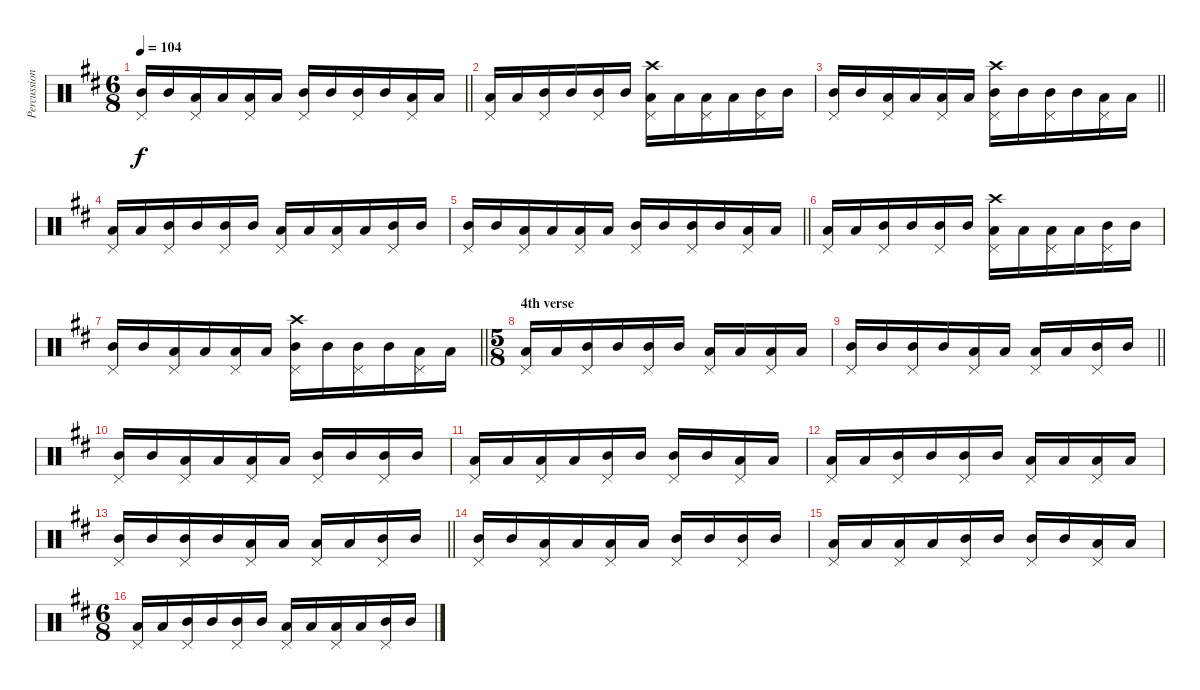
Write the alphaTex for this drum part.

\track ("Percussion" "Percussion") {instrument percussion}
\staff {score}
\articulation defaults
\ts (6 8)
\tempo 104
\clef neutral
\barLineRight lightlight
\ks d
("Pedal Hi-Hat (hit)" "Mid Tom (hit)").16{dy f} "Mid Tom (hit)".16 ("Pedal Hi-Hat (hit)" "Low Tom (hit)").16 "Low Tom (hit)".16 ("Pedal Hi-Hat (hit)" "Low Tom (hit)").16 "Low Tom (hit)".16 ("Pedal Hi-Hat (hit)" "Mid Tom (hit)").16 "Mid Tom (hit)".16 ("Pedal Hi-Hat (hit)" "Mid Tom (hit)").16 "Mid Tom (hit)".16 ("Pedal Hi-Hat (hit)" "Low Tom (hit)").16 "Low Tom (hit)".16 |
("Pedal Hi-Hat (hit)" "Low Tom (hit)").16 "Low Tom (hit)".16 ("Pedal Hi-Hat (hit)" "Mid Tom (hit)").16 "Mid Tom (hit)".16 ("Pedal Hi-Hat (hit)" "Mid Tom (hit)").16 "Mid Tom (hit)".16 ("Pedal Hi-Hat (hit)" "Crash high (hit)" "Low Tom (hit)").16 "Low Tom (hit)".16 ("Pedal Hi-Hat (hit)" "Low Tom (hit)").16 "Low Tom (hit)".16 ("Pedal Hi-Hat (hit)" "Mid Tom (hit)").16 "Mid Tom (hit)".16 |
\barLineRight lightlight
("Pedal Hi-Hat (hit)" "Mid Tom (hit)").16 "Mid Tom (hit)".16 ("Pedal Hi-Hat (hit)" "Low Tom (hit)").16 "Low Tom (hit)".16 ("Pedal Hi-Hat (hit)" "Low Tom (hit)").16 "Low Tom (hit)".16 ("Pedal Hi-Hat (hit)" "Crash high (hit)" "Mid Tom (hit)").16 "Mid Tom (hit)".16 ("Pedal Hi-Hat (hit)" "Mid Tom (hit)").16 "Mid Tom (hit)".16 ("Pedal Hi-Hat (hit)" "Low Tom (hit)").16 "Low Tom (hit)".16 |
("Pedal Hi-Hat (hit)" "Low Tom (hit)").16 "Low Tom (hit)".16 ("Pedal Hi-Hat (hit)" "Mid Tom (hit)").16 "Mid Tom (hit)".16 ("Pedal Hi-Hat (hit)" "Mid Tom (hit)").16 "Mid Tom (hit)".16 ("Pedal Hi-Hat (hit)" "Low Tom (hit)").16 "Low Tom (hit)".16 ("Pedal Hi-Hat (hit)" "Low Tom (hit)").16 "Low Tom (hit)".16 ("Pedal Hi-Hat (hit)" "Mid Tom (hit)").16 "Mid Tom (hit)".16 |
\barLineRight lightlight
("Pedal Hi-Hat (hit)" "Mid Tom (hit)").16 "Mid Tom (hit)".16 ("Pedal Hi-Hat (hit)" "Low Tom (hit)").16 "Low Tom (hit)".16 ("Pedal Hi-Hat (hit)" "Low Tom (hit)").16 "Low Tom (hit)".16 ("Pedal Hi-Hat (hit)" "Mid Tom (hit)").16 "Mid Tom (hit)".16 ("Pedal Hi-Hat (hit)" "Mid Tom (hit)").16 "Mid Tom (hit)".16 ("Pedal Hi-Hat (hit)" "Low Tom (hit)").16 "Low Tom (hit)".16 |
("Pedal Hi-Hat (hit)" "Low Tom (hit)").16 "Low Tom (hit)".16 ("Pedal Hi-Hat (hit)" "Mid Tom (hit)").16 "Mid Tom (hit)".16 ("Pedal Hi-Hat (hit)" "Mid Tom (hit)").16 "Mid Tom (hit)".16 ("Pedal Hi-Hat (hit)" "Crash high (hit)" "Low Tom (hit)").16 "Low Tom (hit)".16 ("Pedal Hi-Hat (hit)" "Low Tom (hit)").16 "Low Tom (hit)".16 ("Pedal Hi-Hat (hit)" "Mid Tom (hit)").16 "Mid Tom (hit)".16 |
\barLineRight lightlight
("Pedal Hi-Hat (hit)" "Mid Tom (hit)").16 "Mid Tom (hit)".16 ("Pedal Hi-Hat (hit)" "Low Tom (hit)").16 "Low Tom (hit)".16 ("Pedal Hi-Hat (hit)" "Low Tom (hit)").16 "Low Tom (hit)".16 ("Pedal Hi-Hat (hit)" "Crash high (hit)" "Mid Tom (hit)").16 "Mid Tom (hit)".16 ("Pedal Hi-Hat (hit)" "Mid Tom (hit)").16 "Mid Tom (hit)".16 ("Pedal Hi-Hat (hit)" "Low Tom (hit)").16 "Low Tom (hit)".16 |
\ts (5 8)
\section ("" "4th verse")
("Pedal Hi-Hat (hit)" "Low Tom (hit)").16 "Low Tom (hit)".16 ("Pedal Hi-Hat (hit)" "Mid Tom (hit)").16 "Mid Tom (hit)".16 ("Pedal Hi-Hat (hit)" "Mid Tom (hit)").16 "Mid Tom (hit)".16 ("Pedal Hi-Hat (hit)" "Low Tom (hit)").16 "Low Tom (hit)".16 ("Pedal Hi-Hat (hit)" "Low Tom (hit)").16 "Low Tom (hit)".16 |
\barLineRight lightlight
("Pedal Hi-Hat (hit)" "Mid Tom (hit)").16 "Mid Tom (hit)".16 ("Pedal Hi-Hat (hit)" "Mid Tom (hit)").16 "Mid Tom (hit)".16 ("Pedal Hi-Hat (hit)" "Low Tom (hit)").16 "Low Tom (hit)".16 ("Pedal Hi-Hat (hit)" "Low Tom (hit)").16 "Low Tom (hit)".16 ("Pedal Hi-Hat (hit)" "Mid Tom (hit)").16 "Mid Tom (hit)".16 |
("Pedal Hi-Hat (hit)" "Mid Tom (hit)").16 "Mid Tom (hit)".16 ("Pedal Hi-Hat (hit)" "Low Tom (hit)").16 "Low Tom (hit)".16 ("Pedal Hi-Hat (hit)" "Low Tom (hit)").16 "Low Tom (hit)".16 ("Pedal Hi-Hat (hit)" "Mid Tom (hit)").16 "Mid Tom (hit)".16 ("Pedal Hi-Hat (hit)" "Mid Tom (hit)").16 "Mid Tom (hit)".16 |
("Pedal Hi-Hat (hit)" "Low Tom (hit)").16 "Low Tom (hit)".16 ("Pedal Hi-Hat (hit)" "Low Tom (hit)").16 "Low Tom (hit)".16 ("Pedal Hi-Hat (hit)" "Mid Tom (hit)").16 "Mid Tom (hit)".16 ("Pedal Hi-Hat (hit)" "Mid Tom (hit)").16 "Mid Tom (hit)".16 ("Pedal Hi-Hat (hit)" "Low Tom (hit)").16 "Low Tom (hit)".16 |
("Pedal Hi-Hat (hit)" "Low Tom (hit)").16 "Low Tom (hit)".16 ("Pedal Hi-Hat (hit)" "Mid Tom (hit)").16 "Mid Tom (hit)".16 ("Pedal Hi-Hat (hit)" "Mid Tom (hit)").16 "Mid Tom (hit)".16 ("Pedal Hi-Hat (hit)" "Low Tom (hit)").16 "Low Tom (hit)".16 ("Pedal Hi-Hat (hit)" "Low Tom (hit)").16 "Low Tom (hit)".16 |
\barLineRight lightlight
("Pedal Hi-Hat (hit)" "Mid Tom (hit)").16 "Mid Tom (hit)".16 ("Pedal Hi-Hat (hit)" "Mid Tom (hit)").16 "Mid Tom (hit)".16 ("Pedal Hi-Hat (hit)" "Low Tom (hit)").16 "Low Tom (hit)".16 ("Pedal Hi-Hat (hit)" "Low Tom (hit)").16 "Low Tom (hit)".16 ("Pedal Hi-Hat (hit)" "Mid Tom (hit)").16 "Mid Tom (hit)".16 |
("Pedal Hi-Hat (hit)" "Mid Tom (hit)").16 "Mid Tom (hit)".16 ("Pedal Hi-Hat (hit)" "Low Tom (hit)").16 "Low Tom (hit)".16 ("Pedal Hi-Hat (hit)" "Low Tom (hit)").16 "Low Tom (hit)".16 ("Pedal Hi-Hat (hit)" "Mid Tom (hit)").16 "Mid Tom (hit)".16 ("Pedal Hi-Hat (hit)" "Mid Tom (hit)").16 "Mid Tom (hit)".16 |
("Pedal Hi-Hat (hit)" "Low Tom (hit)").16 "Low Tom (hit)".16 ("Pedal Hi-Hat (hit)" "Low Tom (hit)").16 "Low Tom (hit)".16 ("Pedal Hi-Hat (hit)" "Mid Tom (hit)").16 "Mid Tom (hit)".16 ("Pedal Hi-Hat (hit)" "Mid Tom (hit)").16 "Mid Tom (hit)".16 ("Pedal Hi-Hat (hit)" "Low Tom (hit)").16 "Low Tom (hit)".16 |
\ts (6 8)
("Pedal Hi-Hat (hit)" "Low Tom (hit)").16 "Low Tom (hit)".16 ("Pedal Hi-Hat (hit)" "Mid Tom (hit)").16 "Mid Tom (hit)".16 ("Pedal Hi-Hat (hit)" "Mid Tom (hit)").16 "Mid Tom (hit)".16 ("Pedal Hi-Hat (hit)" "Low Tom (hit)").16 "Low Tom (hit)".16 ("Pedal Hi-Hat (hit)" "Low Tom (hit)").16 "Low Tom (hit)".16 ("Pedal Hi-Hat (hit)" "Mid Tom (hit)").16 "Mid Tom (hit)".16
